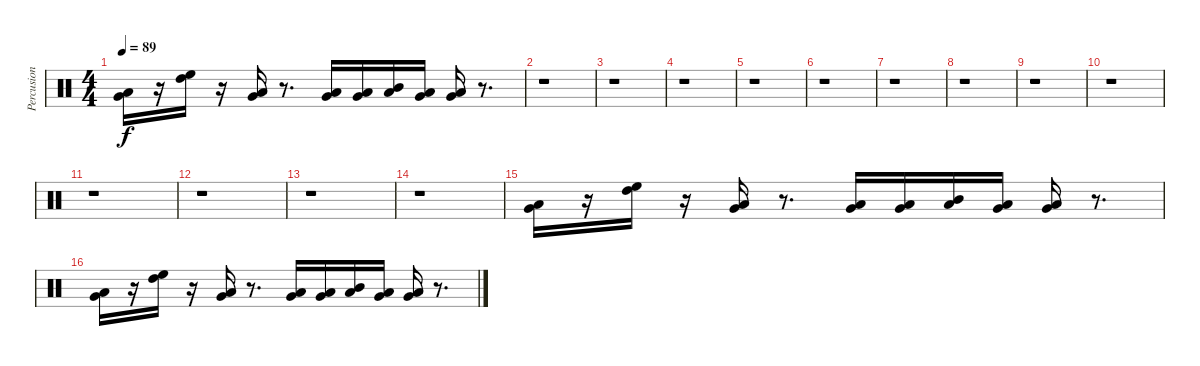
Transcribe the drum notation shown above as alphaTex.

\track ("Percusion" "Percusion") {instrument percussion}
\staff {score}
\articulation defaults
\ts (4 4)
\tempo 89
\clef neutral
\ks c
("Very Low Tom (hit)" "Low Floor Tom (hit)").16{dy f} r.16 ("High Floor Tom (hit)" "High Tom (hit)").16 r.16 ("Very Low Tom (hit)" "Low Floor Tom (hit)").16 r.8{d} ("Very Low Tom (hit)" "Low Floor Tom (hit)").16 ("Very Low Tom (hit)" "Low Floor Tom (hit)").16 ("Mid Tom (hit)" "Low Floor Tom (hit)").16 ("Very Low Tom (hit)" "Low Floor Tom (hit)").16 ("Very Low Tom (hit)" "Low Floor Tom (hit)").16 r.8{d} |
r.1 |
r.1 |
r.1 |
r.1 |
r.1 |
r.1 |
r.1 |
r.1 |
r.1 |
r.1 |
r.1 |
r.1 |
r.1 |
("Very Low Tom (hit)" "Low Floor Tom (hit)").16 r.16 ("High Floor Tom (hit)" "High Tom (hit)").16 r.16 ("Very Low Tom (hit)" "Low Floor Tom (hit)").16 r.8{d} ("Very Low Tom (hit)" "Low Floor Tom (hit)").16 ("Very Low Tom (hit)" "Low Floor Tom (hit)").16 ("Mid Tom (hit)" "Low Floor Tom (hit)").16 ("Very Low Tom (hit)" "Low Floor Tom (hit)").16 ("Very Low Tom (hit)" "Low Floor Tom (hit)").16 r.8{d} |
("Very Low Tom (hit)" "Low Floor Tom (hit)").16 r.16 ("High Floor Tom (hit)" "High Tom (hit)").16 r.16 ("Very Low Tom (hit)" "Low Floor Tom (hit)").16 r.8{d} ("Very Low Tom (hit)" "Low Floor Tom (hit)").16 ("Very Low Tom (hit)" "Low Floor Tom (hit)").16 ("Mid Tom (hit)" "Low Floor Tom (hit)").16 ("Very Low Tom (hit)" "Low Floor Tom (hit)").16 ("Very Low Tom (hit)" "Low Floor Tom (hit)").16 r.8{d}
